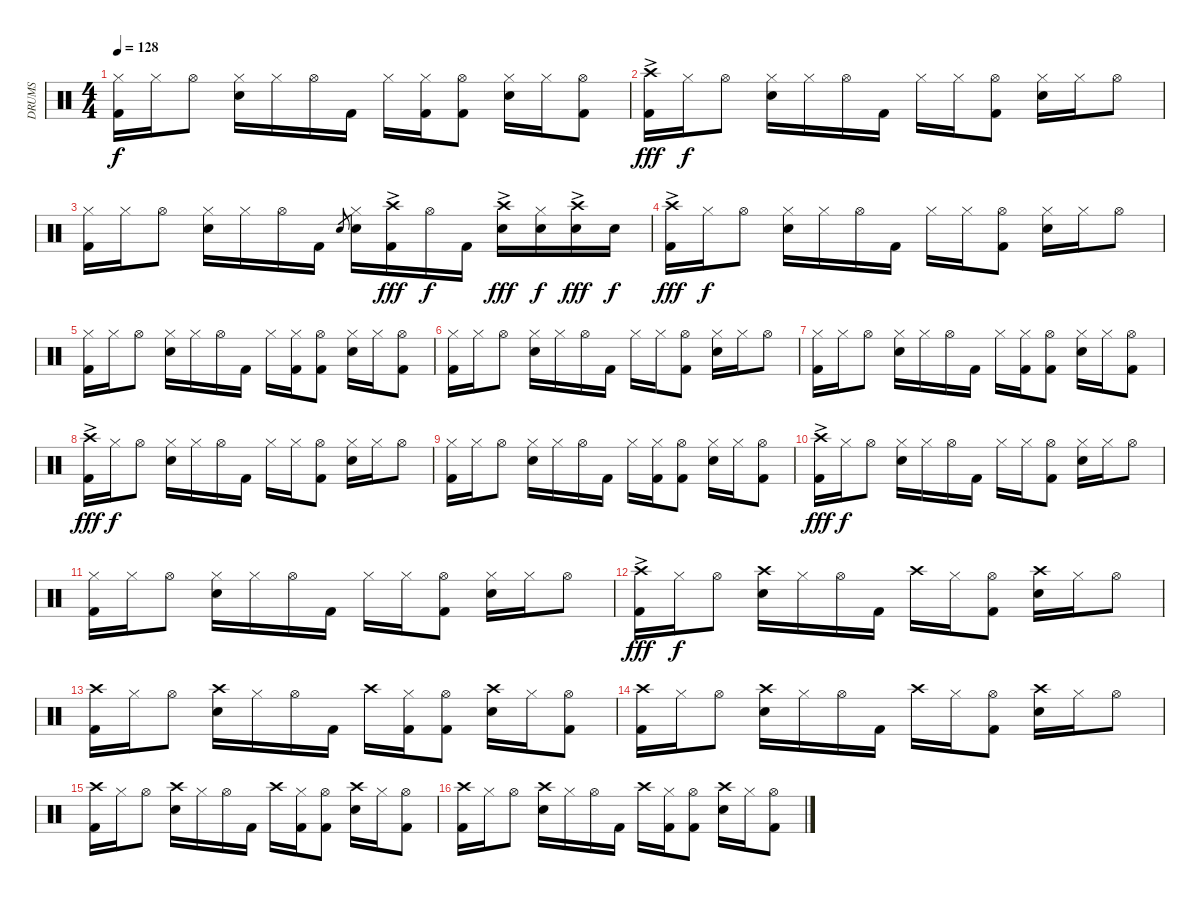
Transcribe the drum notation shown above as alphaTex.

\track ("DRUMS" "DRUMS") {instrument percussion}
\staff {score}
\articulation defaults
\ts (4 4)
\tempo 128
\clef neutral
\ks c
("Hi-Hat (closed)" "Kick (hit) 2").16{dy f} "Hi-Hat (closed)".16 "Hi-Hat (open)".8 ("Hi-Hat (closed)" "Snare (hit) 2").16 "Hi-Hat (closed)".16 "Hi-Hat (open)".16 "Kick (hit) 2".16 "Hi-Hat (closed)".16 ("Hi-Hat (closed)" "Kick (hit) 2").16 ("Hi-Hat (open)" "Kick (hit) 2").8 ("Hi-Hat (closed)" "Snare (hit) 2").16 "Hi-Hat (closed)".16 ("Hi-Hat (open)" "Kick (hit) 2").8 |
("Crash high (hit)"{ac} "Kick (hit) 2").16{dy fff} "Hi-Hat (closed)".16{dy f} "Hi-Hat (open)".8 ("Hi-Hat (closed)" "Snare (hit) 2").16 "Hi-Hat (closed)".16 "Hi-Hat (open)".16 "Kick (hit) 2".16 "Hi-Hat (closed)".16 "Hi-Hat (closed)".16 ("Hi-Hat (open)" "Kick (hit) 2").8 ("Hi-Hat (closed)" "Snare (hit) 2").16 "Hi-Hat (closed)".16 "Hi-Hat (open)".8 |
("Hi-Hat (closed)" "Kick (hit) 2").16 "Hi-Hat (closed)".16 "Hi-Hat (open)".8 ("Hi-Hat (closed)" "Snare (hit) 2").16 "Hi-Hat (closed)".16 "Hi-Hat (open)".16 "Kick (hit) 2".16 "Snare (hit) 2".8{gr} ("Hi-Hat (closed)" "Snare (hit) 2").16 ("Crash high (hit)"{ac} "Kick (hit) 2").16{dy fff} "Hi-Hat (open)".16{dy f} "Kick (hit) 2".16 ("Crash high (hit)"{ac} "Snare (hit) 2").16{dy fff} ("Hi-Hat (closed)" "Snare (hit) 2").16{dy f} ("Crash high (hit)"{ac} "Snare (hit) 2").16{dy fff} "Snare (hit) 2".16{dy f} |
("Crash high (hit)"{ac} "Kick (hit) 2").16{dy fff} "Hi-Hat (closed)".16{dy f} "Hi-Hat (open)".8 ("Hi-Hat (closed)" "Snare (hit) 2").16 "Hi-Hat (closed)".16 "Hi-Hat (open)".16 "Kick (hit) 2".16 "Hi-Hat (closed)".16 "Hi-Hat (closed)".16 ("Hi-Hat (open)" "Kick (hit) 2").8 ("Hi-Hat (closed)" "Snare (hit) 2").16 "Hi-Hat (closed)".16 "Hi-Hat (open)".8 |
("Hi-Hat (closed)" "Kick (hit) 2").16 "Hi-Hat (closed)".16 "Hi-Hat (open)".8 ("Hi-Hat (closed)" "Snare (hit) 2").16 "Hi-Hat (closed)".16 "Hi-Hat (open)".16 "Kick (hit) 2".16 "Hi-Hat (closed)".16 ("Hi-Hat (closed)" "Kick (hit) 2").16 ("Hi-Hat (open)" "Kick (hit) 2").8 ("Hi-Hat (closed)" "Snare (hit) 2").16 "Hi-Hat (closed)".16 ("Hi-Hat (open)" "Kick (hit) 2").8 |
("Hi-Hat (closed)" "Kick (hit) 2").16 "Hi-Hat (closed)".16 "Hi-Hat (open)".8 ("Hi-Hat (closed)" "Snare (hit) 2").16 "Hi-Hat (closed)".16 "Hi-Hat (open)".16 "Kick (hit) 2".16 "Hi-Hat (closed)".16 "Hi-Hat (closed)".16 ("Hi-Hat (open)" "Kick (hit) 2").8 ("Hi-Hat (closed)" "Snare (hit) 2").16 "Hi-Hat (closed)".16 "Hi-Hat (open)".8 |
("Hi-Hat (closed)" "Kick (hit) 2").16 "Hi-Hat (closed)".16 "Hi-Hat (open)".8 ("Hi-Hat (closed)" "Snare (hit) 2").16 "Hi-Hat (closed)".16 "Hi-Hat (open)".16 "Kick (hit) 2".16 "Hi-Hat (closed)".16 ("Hi-Hat (closed)" "Kick (hit) 2").16 ("Hi-Hat (open)" "Kick (hit) 2").8 ("Hi-Hat (closed)" "Snare (hit) 2").16 "Hi-Hat (closed)".16 ("Hi-Hat (open)" "Kick (hit) 2").8 |
("Crash high (hit)"{ac} "Kick (hit) 2").16{dy fff} "Hi-Hat (closed)".16{dy f} "Hi-Hat (open)".8 ("Hi-Hat (closed)" "Snare (hit) 2").16 "Hi-Hat (closed)".16 "Hi-Hat (open)".16 "Kick (hit) 2".16 "Hi-Hat (closed)".16 "Hi-Hat (closed)".16 ("Hi-Hat (open)" "Kick (hit) 2").8 ("Hi-Hat (closed)" "Snare (hit) 2").16 "Hi-Hat (closed)".16 "Hi-Hat (open)".8 |
("Hi-Hat (closed)" "Kick (hit) 2").16 "Hi-Hat (closed)".16 "Hi-Hat (open)".8 ("Hi-Hat (closed)" "Snare (hit) 2").16 "Hi-Hat (closed)".16 "Hi-Hat (open)".16 "Kick (hit) 2".16 "Hi-Hat (closed)".16 ("Hi-Hat (closed)" "Kick (hit) 2").16 ("Hi-Hat (open)" "Kick (hit) 2").8 ("Hi-Hat (closed)" "Snare (hit) 2").16 "Hi-Hat (closed)".16 ("Hi-Hat (open)" "Kick (hit) 2").8 |
("Crash high (hit)"{ac} "Kick (hit) 2").16{dy fff} "Hi-Hat (closed)".16{dy f} "Hi-Hat (open)".8 ("Hi-Hat (closed)" "Snare (hit) 2").16 "Hi-Hat (closed)".16 "Hi-Hat (open)".16 "Kick (hit) 2".16 "Hi-Hat (closed)".16 "Hi-Hat (closed)".16 ("Hi-Hat (open)" "Kick (hit) 2").8 ("Hi-Hat (closed)" "Snare (hit) 2").16 "Hi-Hat (closed)".16 "Hi-Hat (open)".8 |
("Hi-Hat (closed)" "Kick (hit) 2").16 "Hi-Hat (closed)".16 "Hi-Hat (open)".8 ("Hi-Hat (closed)" "Snare (hit) 2").16 "Hi-Hat (closed)".16 "Hi-Hat (open)".16 "Kick (hit) 2".16 "Hi-Hat (closed)".16 "Hi-Hat (closed)".16 ("Hi-Hat (open)" "Kick (hit) 2").8 ("Hi-Hat (closed)" "Snare (hit) 2").16 "Hi-Hat (closed)".16 "Hi-Hat (open)".8 |
("Crash high (hit)"{ac} "Kick (hit) 2").16{dy fff} "Hi-Hat (closed)".16{dy f} "Hi-Hat (open)".8 ("Crash high (hit)" "Snare (hit) 2").16 "Hi-Hat (closed)".16 "Hi-Hat (open)".16 "Kick (hit) 2".16 "Crash high (hit)".16 "Hi-Hat (closed)".16 ("Hi-Hat (open)" "Kick (hit) 2").8 ("Crash high (hit)" "Snare (hit) 2").16 "Hi-Hat (closed)".16 "Hi-Hat (open)".8 |
("Crash high (hit)" "Kick (hit) 2").16 "Hi-Hat (closed)".16 "Hi-Hat (open)".8 ("Crash high (hit)" "Snare (hit) 2").16 "Hi-Hat (closed)".16 "Hi-Hat (open)".16 "Kick (hit) 2".16 "Crash high (hit)".16 ("Hi-Hat (closed)" "Kick (hit) 2").16 ("Hi-Hat (open)" "Kick (hit) 2").8 ("Crash high (hit)" "Snare (hit) 2").16 "Hi-Hat (closed)".16 ("Hi-Hat (open)" "Kick (hit) 2").8 |
("Crash high (hit)" "Kick (hit) 2").16 "Hi-Hat (closed)".16 "Hi-Hat (open)".8 ("Crash high (hit)" "Snare (hit) 2").16 "Hi-Hat (closed)".16 "Hi-Hat (open)".16 "Kick (hit) 2".16 "Crash high (hit)".16 "Hi-Hat (closed)".16 ("Hi-Hat (open)" "Kick (hit) 2").8 ("Crash high (hit)" "Snare (hit) 2").16 "Hi-Hat (closed)".16 "Hi-Hat (open)".8 |
("Crash high (hit)" "Kick (hit) 2").16 "Hi-Hat (closed)".16 "Hi-Hat (open)".8 ("Crash high (hit)" "Snare (hit) 2").16 "Hi-Hat (closed)".16 "Hi-Hat (open)".16 "Kick (hit) 2".16 "Crash high (hit)".16 ("Hi-Hat (closed)" "Kick (hit) 2").16 ("Hi-Hat (open)" "Kick (hit) 2").8 ("Crash high (hit)" "Snare (hit) 2").16 "Hi-Hat (closed)".16 ("Hi-Hat (open)" "Kick (hit) 2").8 |
("Crash high (hit)" "Kick (hit) 2").16 "Hi-Hat (closed)".16 "Hi-Hat (open)".8 ("Crash high (hit)" "Snare (hit) 2").16 "Hi-Hat (closed)".16 "Hi-Hat (open)".16 "Kick (hit) 2".16 "Crash high (hit)".16 ("Hi-Hat (closed)" "Kick (hit) 2").16 ("Hi-Hat (open)" "Kick (hit) 2").8 ("Crash high (hit)" "Snare (hit) 2").16 "Hi-Hat (closed)".16 ("Hi-Hat (open)" "Kick (hit) 2").8
